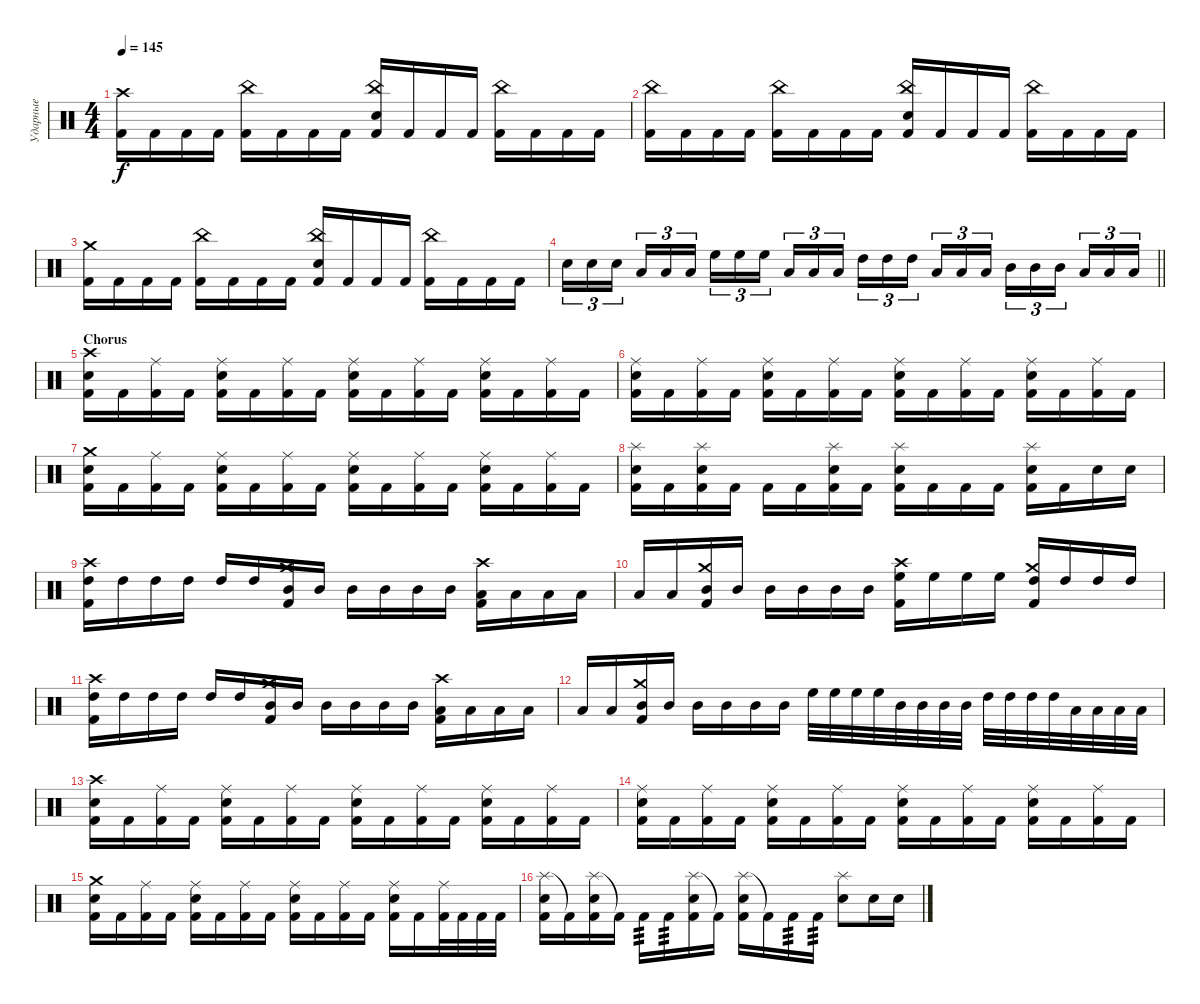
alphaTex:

\track ("Ударные" "Ударные") {instrument percussion}
\staff {score}
\articulation defaults
\ts (4 4)
\tempo 145
\clef neutral
\ks c
("Crash high (hit)" "Kick (hit) 2").16{dy f} "Kick (hit) 2".16 "Kick (hit) 2".16 "Kick (hit) 2".16 ("China (hit)" "Kick (hit) 2").16 "Kick (hit) 2".16 "Kick (hit) 2".16 "Kick (hit) 2".16 ("China (hit)" "Electric Snare (hit)" "Kick (hit) 2").16 "Kick (hit) 2".16 "Kick (hit) 2".16 "Kick (hit) 2".16 ("China (hit)" "Kick (hit) 2").16 "Kick (hit) 2".16 "Kick (hit) 2".16 "Kick (hit) 2".16 |
("China (hit)" "Kick (hit) 2").16 "Kick (hit) 2".16 "Kick (hit) 2".16 "Kick (hit) 2".16 ("China (hit)" "Kick (hit) 2").16 "Kick (hit) 2".16 "Kick (hit) 2".16 "Kick (hit) 2".16 ("China (hit)" "Electric Snare (hit)" "Kick (hit) 2").16 "Kick (hit) 2".16 "Kick (hit) 2".16 "Kick (hit) 2".16 ("China (hit)" "Kick (hit) 2").16 "Kick (hit) 2".16 "Kick (hit) 2".16 "Kick (hit) 2".16 |
("Crash medium (hit)" "Kick (hit) 2").16 "Kick (hit) 2".16 "Kick (hit) 2".16 "Kick (hit) 2".16 ("China (hit)" "Kick (hit) 2").16 "Kick (hit) 2".16 "Kick (hit) 2".16 "Kick (hit) 2".16 ("China (hit)" "Electric Snare (hit)" "Kick (hit) 2").16 "Kick (hit) 2".16 "Kick (hit) 2".16 "Kick (hit) 2".16 ("China (hit)" "Kick (hit) 2").16 "Kick (hit) 2".16 "Kick (hit) 2".16 "Kick (hit) 2".16 |
\barLineRight lightlight "Electric Snare (hit)".16{tu (3 2)} "Electric Snare (hit)".16{tu (3 2)} "Electric Snare (hit)".16{tu (3 2) beam splitsecondary} "Low Tom (hit)".16{tu (3 2)} "Low Tom (hit)".16{tu (3 2)} "Low Tom (hit)".16{tu (3 2)} "High Floor Tom (hit)".16{tu (3 2)} "High Floor Tom (hit)".16{tu (3 2)} "High Floor Tom (hit)".16{tu (3 2) beam splitsecondary} "Low Tom (hit)".16{tu (3 2)} "Low Tom (hit)".16{tu (3 2)} "Low Tom (hit)".16{tu (3 2)} "High Tom (hit)".16{tu (3 2)} "High Tom (hit)".16{tu (3 2)} "High Tom (hit)".16{tu (3 2) beam splitsecondary} "Low Tom (hit)".16{tu (3 2)} "Low Tom (hit)".16{tu (3 2)} "Low Tom (hit)".16{tu (3 2)} "Mid Tom (hit)".16{tu (3 2)} "Mid Tom (hit)".16{tu (3 2)} "Mid Tom (hit)".16{tu (3 2) beam splitsecondary} "Low Tom (hit)".16{tu (3 2)} "Low Tom (hit)".16{tu (3 2)} "Low Tom (hit)".16{tu (3 2)}
|
\section ("" "Chorus")
("Crash high (hit)" "Electric Snare (hit)" "Kick (hit) 2").16 "Kick (hit) 2".16 ("Ride (middle)" "Kick (hit) 2").16 "Kick (hit) 2".16 ("Ride (middle)" "Electric Snare (hit)" "Kick (hit) 2").16 "Kick (hit) 2".16 ("Ride (middle)" "Kick (hit) 2").16 "Kick (hit) 2".16 ("Ride (middle)" "Electric Snare (hit)" "Kick (hit) 2").16 "Kick (hit) 2".16 ("Ride (middle)" "Kick (hit) 2").16 "Kick (hit) 2".16 ("Ride (middle)" "Electric Snare (hit)" "Kick (hit) 2").16 "Kick (hit) 2".16 ("Ride (middle)" "Kick (hit) 2").16 "Kick (hit) 2".16 |
("Ride (middle)" "Electric Snare (hit)" "Kick (hit) 2").16 "Kick (hit) 2".16 ("Ride (middle)" "Kick (hit) 2").16 "Kick (hit) 2".16 ("Ride (middle)" "Electric Snare (hit)" "Kick (hit) 2").16 "Kick (hit) 2".16 ("Ride (middle)" "Kick (hit) 2").16 "Kick (hit) 2".16 ("Ride (middle)" "Electric Snare (hit)" "Kick (hit) 2").16 "Kick (hit) 2".16 ("Ride (middle)" "Kick (hit) 2").16 "Kick (hit) 2".16 ("Ride (middle)" "Electric Snare (hit)" "Kick (hit) 2").16 "Kick (hit) 2".16 ("Ride (middle)" "Kick (hit) 2").16 "Kick (hit) 2".16 |
("Crash medium (hit)" "Electric Snare (hit)" "Kick (hit) 2").16 "Kick (hit) 2".16 ("Ride (middle)" "Kick (hit) 2").16 "Kick (hit) 2".16 ("Ride (middle)" "Electric Snare (hit)" "Kick (hit) 2").16 "Kick (hit) 2".16 ("Ride (middle)" "Kick (hit) 2").16 "Kick (hit) 2".16 ("Ride (middle)" "Electric Snare (hit)" "Kick (hit) 2").16 "Kick (hit) 2".16 ("Ride (middle)" "Kick (hit) 2").16 "Kick (hit) 2".16 ("Ride (middle)" "Electric Snare (hit)" "Kick (hit) 2").16 "Kick (hit) 2".16 ("Ride (middle)" "Kick (hit) 2").16 "Kick (hit) 2".16 |
("Splash (hit)" "Electric Snare (hit)" "Kick (hit) 2").16 "Kick (hit) 2".16 ("Splash (hit)" "Electric Snare (hit)" "Kick (hit) 2").16 "Kick (hit) 2".16 "Kick (hit) 2".16 "Kick (hit) 2".16 ("Splash (hit)" "Electric Snare (hit)" "Kick (hit) 2").16 "Kick (hit) 2".16 ("Splash (hit)" "Electric Snare (hit)" "Kick (hit) 2").16 "Kick (hit) 2".16 "Kick (hit) 2".16 "Kick (hit) 2".16 ("Splash (hit)" "Electric Snare (hit)" "Kick (hit) 2").16 "Kick (hit) 2".16 "Electric Snare (hit)".16 "Electric Snare (hit)".16 |
("Crash high (hit)" "High Tom (hit)" "Kick (hit) 2").16 "High Tom (hit)".16 "High Tom (hit)".16 "High Tom (hit)".16 "High Tom (hit)".16 "High Tom (hit)".16 ("Crash medium (hit)" "Mid Tom (hit)" "Kick (hit) 2").16 "Mid Tom (hit)".16 "Mid Tom (hit)".16 "Mid Tom (hit)".16 "Mid Tom (hit)".16 "Mid Tom (hit)".16 ("Crash high (hit)" "Low Tom (hit)" "Kick (hit) 2").16 "Low Tom (hit)".16 "Low Tom (hit)".16 "Low Tom (hit)".16 |
"Low Tom (hit)".16 "Low Tom (hit)".16 ("Crash medium (hit)" "Mid Tom (hit)" "Kick (hit) 2").16 "Mid Tom (hit)".16 "Mid Tom (hit)".16 "Mid Tom (hit)".16 "Mid Tom (hit)".16 "Mid Tom (hit)".16 ("Crash high (hit)" "High Floor Tom (hit)" "Kick (hit) 2").16 "High Floor Tom (hit)".16 "High Floor Tom (hit)".16 "High Floor Tom (hit)".16 ("Crash medium (hit)" "High Tom (hit)" "Kick (hit) 2").16 "High Tom (hit)".16 "High Tom (hit)".16 "High Tom (hit)".16 |
("Crash high (hit)" "High Tom (hit)" "Kick (hit) 2").16 "High Tom (hit)".16 "High Tom (hit)".16 "High Tom (hit)".16 "High Tom (hit)".16 "High Tom (hit)".16 ("Crash medium (hit)" "Mid Tom (hit)" "Kick (hit) 2").16 "Mid Tom (hit)".16 "Mid Tom (hit)".16 "Mid Tom (hit)".16 "Mid Tom (hit)".16 "Mid Tom (hit)".16 ("Crash high (hit)" "Low Tom (hit)" "Kick (hit) 2").16 "Low Tom (hit)".16 "Low Tom (hit)".16 "Low Tom (hit)".16 |
"Low Tom (hit)".16 "Low Tom (hit)".16 ("Crash medium (hit)" "Mid Tom (hit)" "Kick (hit) 2").16 "Mid Tom (hit)".16 "Mid Tom (hit)".16 "Mid Tom (hit)".16 "Mid Tom (hit)".16 "Mid Tom (hit)".16 "High Floor Tom (hit)".32 "High Floor Tom (hit)".32 "High Floor Tom (hit)".32 "High Floor Tom (hit)".32 "Mid Tom (hit)".32 "Mid Tom (hit)".32 "Mid Tom (hit)".32 "Mid Tom (hit)".32 "High Tom (hit)".32 "High Tom (hit)".32 "High Tom (hit)".32 "High Tom (hit)".32 "Low Tom (hit)".32 "Low Tom (hit)".32 "Low Tom (hit)".32 "Low Tom (hit)".32 |
("Crash high (hit)" "Electric Snare (hit)" "Kick (hit) 2").16 "Kick (hit) 2".16 ("Ride (middle)" "Kick (hit) 2").16 "Kick (hit) 2".16 ("Ride (middle)" "Electric Snare (hit)" "Kick (hit) 2").16 "Kick (hit) 2".16 ("Ride (middle)" "Kick (hit) 2").16 "Kick (hit) 2".16 ("Ride (middle)" "Electric Snare (hit)" "Kick (hit) 2").16 "Kick (hit) 2".16 ("Ride (middle)" "Kick (hit) 2").16 "Kick (hit) 2".16 ("Ride (middle)" "Electric Snare (hit)" "Kick (hit) 2").16 "Kick (hit) 2".16 ("Ride (middle)" "Kick (hit) 2").16 "Kick (hit) 2".16 |
("Ride (middle)" "Electric Snare (hit)" "Kick (hit) 2").16 "Kick (hit) 2".16 ("Ride (middle)" "Kick (hit) 2").16 "Kick (hit) 2".16 ("Ride (middle)" "Electric Snare (hit)" "Kick (hit) 2").16 "Kick (hit) 2".16 ("Ride (middle)" "Kick (hit) 2").16 "Kick (hit) 2".16 ("Ride (middle)" "Electric Snare (hit)" "Kick (hit) 2").16 "Kick (hit) 2".16 ("Ride (middle)" "Kick (hit) 2").16 "Kick (hit) 2".16 ("Ride (middle)" "Electric Snare (hit)" "Kick (hit) 2").16 "Kick (hit) 2".16 ("Ride (middle)" "Kick (hit) 2").16 "Kick (hit) 2".16 |
("Crash medium (hit)" "Electric Snare (hit)" "Kick (hit) 2").16 "Kick (hit) 2".16 ("Ride (middle)" "Kick (hit) 2").16 "Kick (hit) 2".16 ("Ride (middle)" "Electric Snare (hit)" "Kick (hit) 2").16 "Kick (hit) 2".16 ("Ride (middle)" "Kick (hit) 2").16 "Kick (hit) 2".16 ("Ride (middle)" "Electric Snare (hit)" "Kick (hit) 2").16 "Kick (hit) 2".16 ("Ride (middle)" "Kick (hit) 2").16 "Kick (hit) 2".16 ("Ride (middle)" "Electric Snare (hit)" "Kick (hit) 2").16 "Kick (hit) 2".16 ("Ride (middle)" "Kick (hit) 2").32 "Kick (hit) 2".32 "Kick (hit) 2".32 "Kick (hit) 2".32 |
("Splash (hit)" "Electric Snare (hit)" "Kick (hit) 2").16 "Kick (hit) 2"{t}.16 ("Splash (hit)" "Electric Snare (hit)" "Kick (hit) 2").16 "Kick (hit) 2"{t}.16 "Kick (hit) 2".16{tp 3} "Kick (hit) 2".16{tp 3} ("Splash (hit)" "Electric Snare (hit)" "Kick (hit) 2").16 "Kick (hit) 2"{t}.16 ("Splash (hit)" "Electric Snare (hit)" "Kick (hit) 2").16 "Kick (hit) 2"{t}.16 "Kick (hit) 2".16{tp 3} "Kick (hit) 2".16{tp 3} ("Splash (hit)" "Electric Snare (hit)").8 "Electric Snare (hit)".16 "Electric Snare (hit)".16
